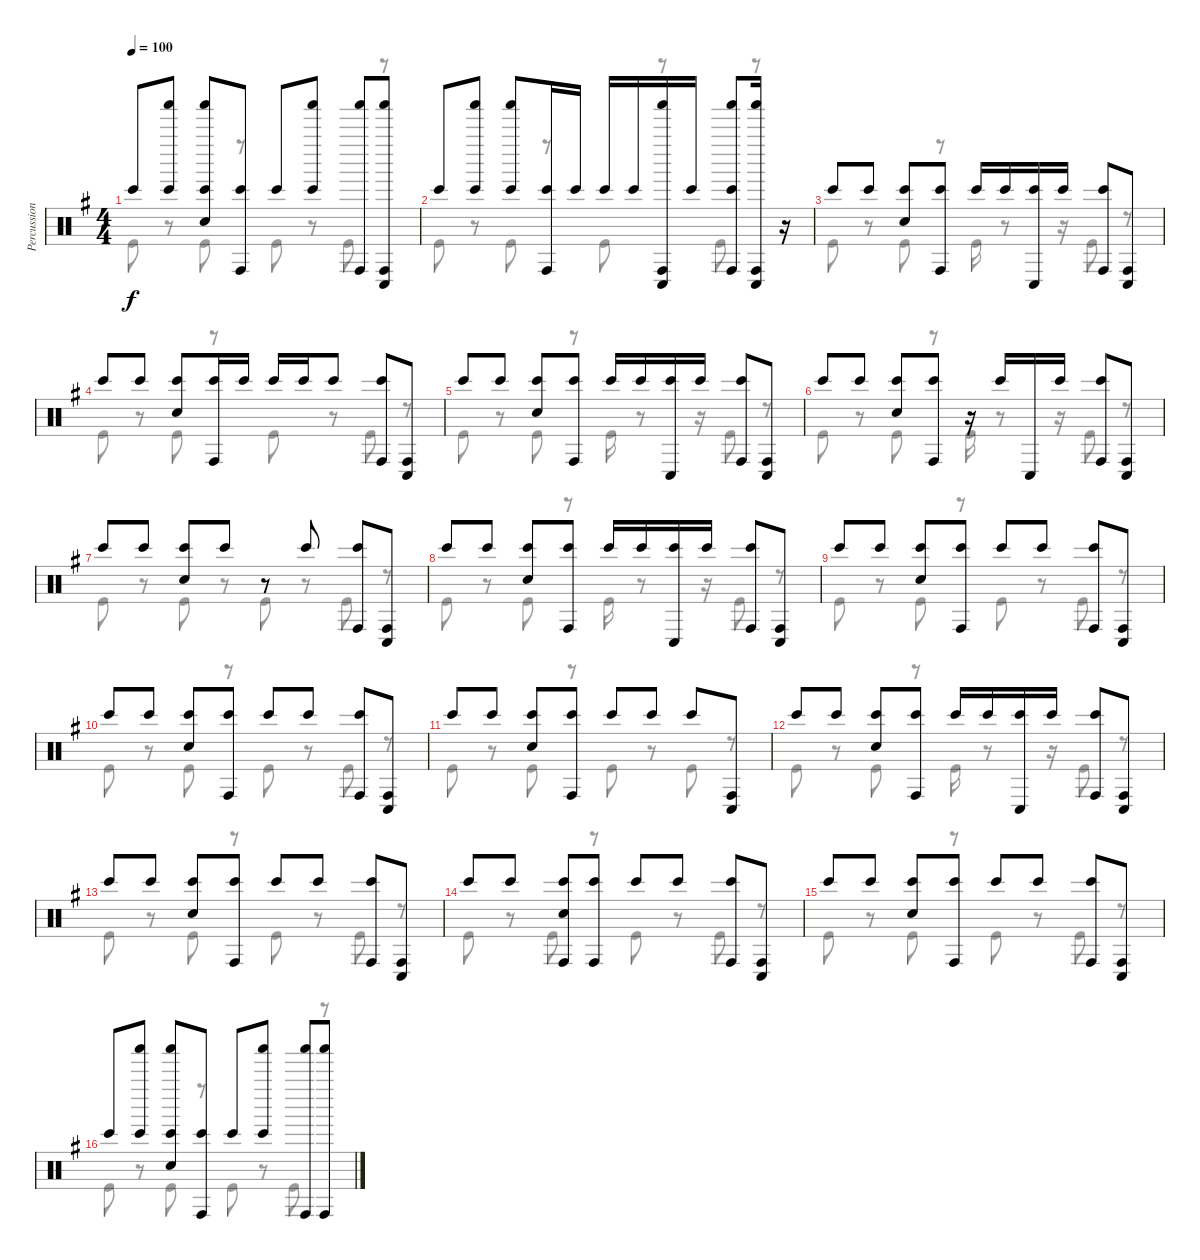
\track ("Percussion 1" "Percussion") {solo instrument percussion}
\staff {score}
\articulation defaults
\voice
\ts (4 4)
\tempo 100
\clef neutral
\ks g "Bongo High (hit)".8{dy f}
("Bongo High (hit)" "Shaker (hit)").8 ("Electric Snare (hit)" "Bongo High (hit)" "Shaker (hit)").8 ("Bongo High (hit)" "Conga high (hit)").8 "Bongo High (hit)".8 ("Bongo High (hit)" "Shaker (hit)").8 ("Shaker (hit)" "Conga high (hit)").8 ("Conga high (hit)" "Conga low (hit)" "Shaker (hit)").8 |
"Bongo High (hit)".8 ("Bongo High (hit)" "Shaker (hit)").8 ("Shaker (hit)" "Bongo High (hit)").8 ("Bongo High (hit)" "Conga high (hit)").16 "Bongo High (hit)".16 "Bongo High (hit)".16 "Bongo High (hit)".16 ("Conga high (hit)" "Conga low (hit)" "Shaker (hit)").16 "Bongo High (hit)".16 ("Bongo High (hit)" "Conga high (hit)" "Shaker (hit)").8 ("Shaker (hit)" "Conga high (hit)" "Conga low (hit)").16 r.16 |
"Bongo High (hit)".8 "Bongo High (hit)".8 ("Electric Snare (hit)" "Bongo High (hit)").8 ("Bongo High (hit)" "Conga high (hit)").8 "Bongo High (hit)".16 "Bongo High (hit)".16 ("Bongo High (hit)" "Conga low (hit)").16 "Bongo High (hit)".16 ("Bongo High (hit)" "Conga high (hit)").8 ("Conga low (hit)" "Conga high (hit)").8 |
"Bongo High (hit)".8 "Bongo High (hit)".8 ("Electric Snare (hit)" "Bongo High (hit)").8 ("Bongo High (hit)" "Conga high (hit)").16 "Bongo High (hit)".16 "Bongo High (hit)".16 "Bongo High (hit)".16 "Bongo High (hit)".8 ("Bongo High (hit)" "Conga high (hit)").8 ("Conga high (hit)" "Conga low (hit)").8 |
"Bongo High (hit)".8 "Bongo High (hit)".8 ("Electric Snare (hit)" "Bongo High (hit)").8 ("Bongo High (hit)" "Conga high (hit)").8 "Bongo High (hit)".16 "Bongo High (hit)".16 ("Bongo High (hit)" "Conga low (hit)").16 "Bongo High (hit)".16 ("Bongo High (hit)" "Conga high (hit)").8 ("Conga high (hit)" "Conga low (hit)").8 |
"Bongo High (hit)".8 "Bongo High (hit)".8 ("Electric Snare (hit)" "Bongo High (hit)").8 ("Bongo High (hit)" "Conga high (hit)").8 r.16 "Bongo High (hit)".16 "Conga low (hit)".16 "Bongo High (hit)".16 ("Bongo High (hit)" "Conga high (hit)").8 ("Conga low (hit)" "Conga high (hit)").8 |
"Bongo High (hit)".8 "Bongo High (hit)".8 ("Electric Snare (hit)" "Bongo High (hit)").8 "Bongo High (hit)".8 r.8 "Bongo High (hit)".8 ("Bongo High (hit)" "Conga high (hit)").8 ("Conga high (hit)" "Conga low (hit)").8 |
"Bongo High (hit)".8 "Bongo High (hit)".8 ("Electric Snare (hit)" "Bongo High (hit)").8 ("Bongo High (hit)" "Conga high (hit)").8 "Bongo High (hit)".16 "Bongo High (hit)".16 ("Bongo High (hit)" "Conga low (hit)").16 "Bongo High (hit)".16 ("Bongo High (hit)" "Conga high (hit)").8 ("Conga low (hit)" "Conga high (hit)").8 |
"Bongo High (hit)".8 "Bongo High (hit)".8 ("Electric Snare (hit)" "Bongo High (hit)").8 ("Bongo High (hit)" "Conga high (hit)").8 "Bongo High (hit)".8 "Bongo High (hit)".8 ("Bongo High (hit)" "Conga high (hit)").8 ("Conga low (hit)" "Conga high (hit)").8 |
"Bongo High (hit)".8 "Bongo High (hit)".8 ("Electric Snare (hit)" "Bongo High (hit)").8 ("Bongo High (hit)" "Conga high (hit)").8 "Bongo High (hit)".8 "Bongo High (hit)".8 ("Bongo High (hit)" "Conga high (hit)").8 ("Conga high (hit)" "Conga low (hit)").8 |
"Bongo High (hit)".8 "Bongo High (hit)".8 ("Electric Snare (hit)" "Bongo High (hit)").8 ("Bongo High (hit)" "Conga high (hit)").8 "Bongo High (hit)".8 "Bongo High (hit)".8 "Bongo High (hit)".8 ("Conga high (hit)" "Conga low (hit)").8 |
"Bongo High (hit)".8 "Bongo High (hit)".8 ("Electric Snare (hit)" "Bongo High (hit)").8 ("Bongo High (hit)" "Conga high (hit)").8 "Bongo High (hit)".16 "Bongo High (hit)".16 ("Bongo High (hit)" "Conga low (hit)").16 "Bongo High (hit)".16 ("Bongo High (hit)" "Conga high (hit)").8 ("Conga low (hit)" "Conga high (hit)").8 |
"Bongo High (hit)".8 "Bongo High (hit)".8 ("Electric Snare (hit)" "Bongo High (hit)").8 ("Bongo High (hit)" "Conga high (hit)").8 "Bongo High (hit)".8 "Bongo High (hit)".8 ("Bongo High (hit)" "Conga high (hit)").8 ("Conga high (hit)" "Conga low (hit)").8 |
"Bongo High (hit)".8 "Bongo High (hit)".8 ("Electric Snare (hit)" "Bongo High (hit)" "Conga high (hit)").8 ("Bongo High (hit)" "Conga high (hit)").8 "Bongo High (hit)".8 "Bongo High (hit)".8 ("Bongo High (hit)" "Conga high (hit)").8 ("Conga high (hit)" "Conga low (hit)").8 |
"Bongo High (hit)".8 "Bongo High (hit)".8 ("Electric Snare (hit)" "Bongo High (hit)").8 ("Bongo High (hit)" "Conga high (hit)").8 "Bongo High (hit)".8 "Bongo High (hit)".8 ("Bongo High (hit)" "Conga high (hit)").8 ("Conga low (hit)" "Conga high (hit)").8 |
"Bongo High (hit)".8 ("Bongo High (hit)" "Shaker (hit)").8 ("Electric Snare (hit)" "Bongo High (hit)" "Shaker (hit)").8 ("Bongo High (hit)" "Conga high (hit)").8 "Bongo High (hit)".8 ("Bongo High (hit)" "Shaker (hit)").8 ("Shaker (hit)" "Conga high (hit)").8 ("Shaker (hit)" "Conga high (hit)").8
\voice
\clef neutral
\ottava regular
\simile none
\ks g "Kick (hit)".8{dy f}
r.8 "Kick (hit)".8 r.8 "Kick (hit)".8 r.8 "Kick (hit)".8 r.8 |
"Kick (hit)".8 r.8 "Kick (hit)".8 r.8 "Kick (hit)".8 r.8 "Kick (hit)".8 r.8 |
"Kick (hit)".8 r.8 "Kick (hit)".8 r.8 "Kick (hit)".16 r.8 r.16 "Kick (hit)".8 r.8 |
"Kick (hit)".8 r.8 "Kick (hit)".8 r.8 "Kick (hit)".8 r.8 "Kick (hit)".8 r.8 |
"Kick (hit)".8 r.8 "Kick (hit)".8 r.8 "Kick (hit)".16 r.8 r.16 "Kick (hit)".8 r.8 |
"Kick (hit)".8 r.8 "Kick (hit)".8 r.8 "Kick (hit)".16 r.8 r.16 "Kick (hit)".8 r.8 |
"Kick (hit)".8 r.8 "Kick (hit)".8 r.8 "Kick (hit)".8 r.8 "Kick (hit)".8 r.8 |
"Kick (hit)".8 r.8 "Kick (hit)".8 r.8 "Kick (hit)".16 r.8 r.16 "Kick (hit)".8 r.8 |
"Kick (hit)".8 r.8 "Kick (hit)".8 r.8 "Kick (hit)".8 r.8 "Kick (hit)".8 r.8 |
"Kick (hit)".8 r.8 "Kick (hit)".8 r.8 "Kick (hit)".8 r.8 "Kick (hit)".8 r.8 |
"Kick (hit)".8 r.8 "Kick (hit)".8 r.8 "Kick (hit)".8 r.8 "Kick (hit)".8 r.8 |
"Kick (hit)".8 r.8 "Kick (hit)".8 r.8 "Kick (hit)".16 r.8 r.16 "Kick (hit)".8 r.8 |
"Kick (hit)".8 r.8 "Kick (hit)".8 r.8 "Kick (hit)".8 r.8 "Kick (hit)".8 r.8 |
"Kick (hit)".8 r.8 "Kick (hit)".8 r.8 "Kick (hit)".8 r.8 "Kick (hit)".8 r.8 |
"Kick (hit)".8 r.8 "Kick (hit)".8 r.8 "Kick (hit)".8 r.8 "Kick (hit)".8 r.8 |
"Kick (hit)".8 r.8 "Kick (hit)".8 r.8 "Kick (hit)".8 r.8 "Kick (hit)".8 r.8
